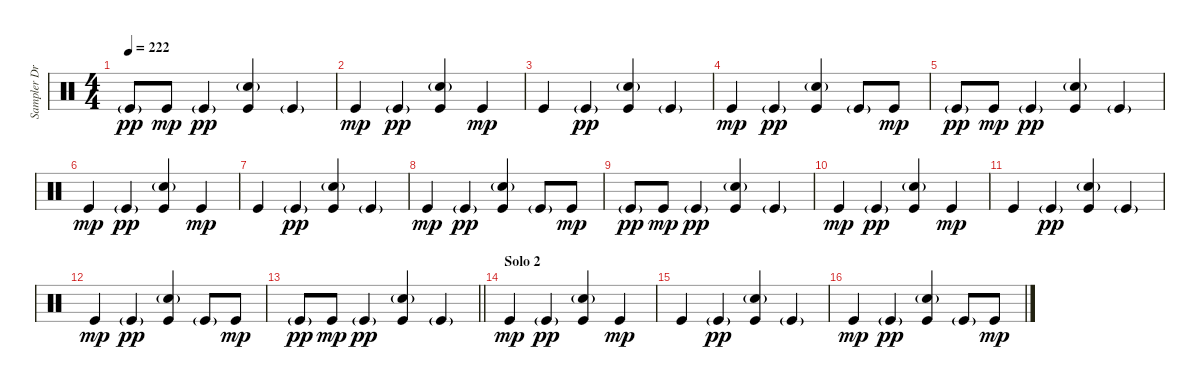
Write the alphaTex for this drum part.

\track ("Sampler Drums 1" "Sampler Dr") {instrument percussion}
\staff {score}
\articulation defaults
\ts (4 4)
\tempo 222
\clef neutral
\ks c "Kick (hit)"{g}.8{dy pp} "Kick (hit)".8{dy mp} "Kick (hit)"{g}.4{dy pp}
("Kick (hit)" "Snare (hit) 2"{g}).4 "Kick (hit)"{g}.4 |
"Kick (hit)".4{dy mp} "Kick (hit)"{g}.4{dy pp} ("Kick (hit)" "Snare (hit) 2"{g}).4 "Kick (hit)".4{dy mp} |
"Kick (hit)".4 "Kick (hit)"{g}.4{dy pp} ("Kick (hit)" "Snare (hit) 2"{g}).4 "Kick (hit)"{g}.4 |
"Kick (hit)".4{dy mp} "Kick (hit)"{g}.4{dy pp} ("Kick (hit)" "Snare (hit) 2"{g}).4 "Kick (hit)"{g}.8 "Kick (hit)".8{dy mp} |
"Kick (hit)"{g}.8{dy pp} "Kick (hit)".8{dy mp} "Kick (hit)"{g}.4{dy pp} ("Kick (hit)" "Snare (hit) 2"{g}).4 "Kick (hit)"{g}.4 |
"Kick (hit)".4{dy mp} "Kick (hit)"{g}.4{dy pp} ("Kick (hit)" "Snare (hit) 2"{g}).4 "Kick (hit)".4{dy mp} |
"Kick (hit)".4 "Kick (hit)"{g}.4{dy pp} ("Kick (hit)" "Snare (hit) 2"{g}).4 "Kick (hit)"{g}.4 |
"Kick (hit)".4{dy mp} "Kick (hit)"{g}.4{dy pp} ("Kick (hit)" "Snare (hit) 2"{g}).4 "Kick (hit)"{g}.8 "Kick (hit)".8{dy mp} |
"Kick (hit)"{g}.8{dy pp} "Kick (hit)".8{dy mp} "Kick (hit)"{g}.4{dy pp} ("Kick (hit)" "Snare (hit) 2"{g}).4 "Kick (hit)"{g}.4 |
"Kick (hit)".4{dy mp} "Kick (hit)"{g}.4{dy pp} ("Kick (hit)" "Snare (hit) 2"{g}).4 "Kick (hit)".4{dy mp} |
"Kick (hit)".4 "Kick (hit)"{g}.4{dy pp} ("Kick (hit)" "Snare (hit) 2"{g}).4 "Kick (hit)"{g}.4 |
"Kick (hit)".4{dy mp} "Kick (hit)"{g}.4{dy pp} ("Kick (hit)" "Snare (hit) 2"{g}).4 "Kick (hit)"{g}.8 "Kick (hit)".8{dy mp} |
\barLineRight lightlight "Kick (hit)"{g}.8{dy pp} "Kick (hit)".8{dy mp} "Kick (hit)"{g}.4{dy pp}
("Kick (hit)" "Snare (hit) 2"{g}).4 "Kick (hit)"{g}.4 |
\section ("" "Solo 2")
"Kick (hit)".4{dy mp volume 16} "Kick (hit)"{g}.4{dy pp} ("Kick (hit)" "Snare (hit) 2"{g}).4 "Kick (hit)".4{dy mp} |
"Kick (hit)".4 "Kick (hit)"{g}.4{dy pp} ("Kick (hit)" "Snare (hit) 2"{g}).4 "Kick (hit)"{g}.4 |
"Kick (hit)".4{dy mp} "Kick (hit)"{g}.4{dy pp} ("Kick (hit)" "Snare (hit) 2"{g}).4 "Kick (hit)"{g}.8 "Kick (hit)".8{dy mp}
